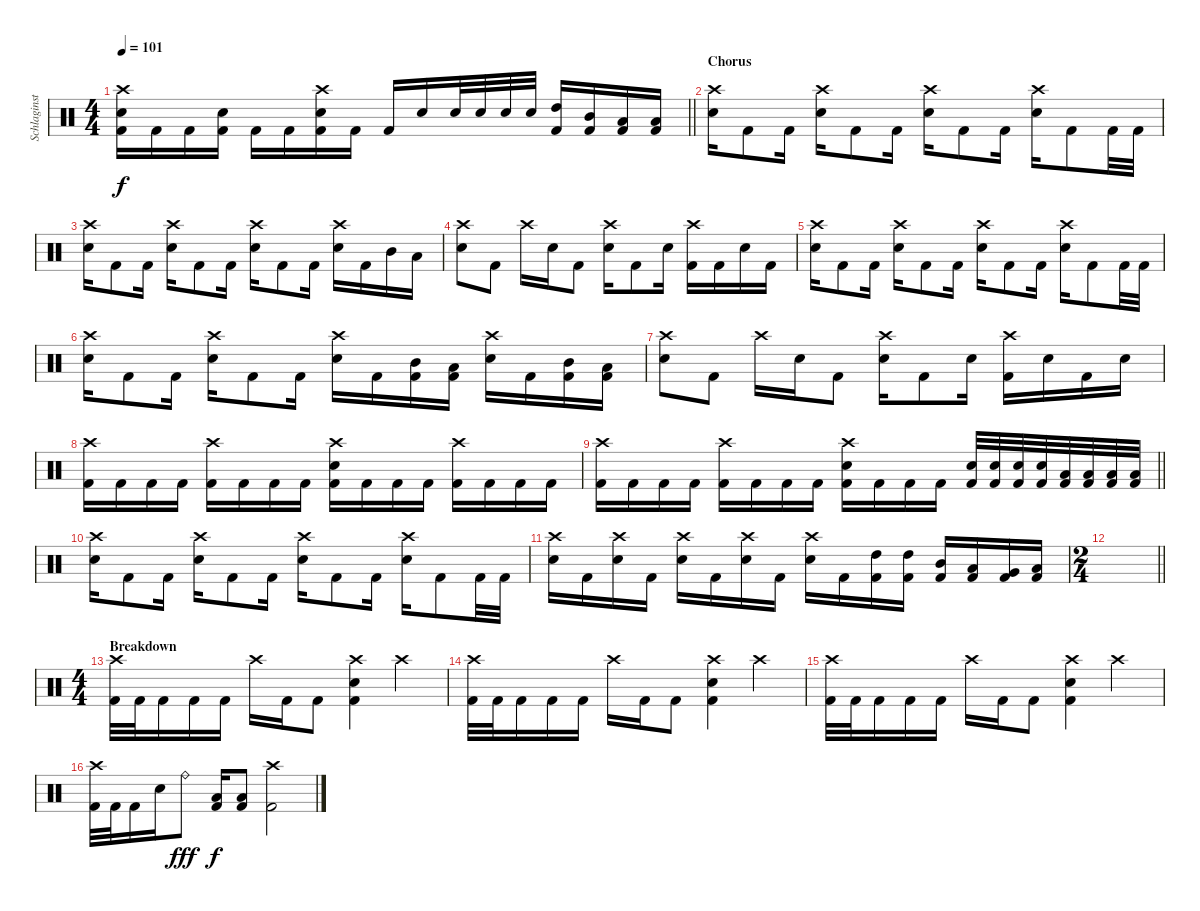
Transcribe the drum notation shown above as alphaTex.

\track ("Schlaginstrumente - Auswahl" "Schlaginst") {instrument percussion}
\staff {score}
\articulation defaults
\ts (4 4)
\tempo 101
\clef neutral
\barLineRight lightlight
\ks c
("Crash high (hit)" "Snare (hit) 2" "Kick (hit) 2").16{dy f} "Kick (hit) 2".16 "Kick (hit) 2".16 ("Snare (hit) 2" "Kick (hit) 2").16 "Kick (hit) 2".16 "Kick (hit) 2".16 ("Crash high (hit)" "Snare (hit) 2" "Kick (hit) 2").16 "Kick (hit) 2".16 "Kick (hit) 2".16 "Snare (hit) 2".16 "Snare (hit) 2".32 "Snare (hit) 2".32 "Snare (hit) 2".32 "Snare (hit) 2".32 ("High Tom (hit)" "Kick (hit) 2").16 ("Mid Tom (hit)" "Kick (hit) 2").16 ("Low Tom (hit)" "Kick (hit) 2").16 ("Low Floor Tom (hit)" "Kick (hit) 2").16 |
\section ("" "Chorus")
("Crash high (hit)" "Snare (hit) 2").16 "Kick (hit) 2".8 "Kick (hit) 2".16 ("Crash high (hit)" "Snare (hit) 2").16 "Kick (hit) 2".8 "Kick (hit) 2".16 ("Crash high (hit)" "Snare (hit) 2").16 "Kick (hit) 2".8 "Kick (hit) 2".16 ("Crash high (hit)" "Snare (hit) 2").16 "Kick (hit) 2".8 "Kick (hit) 2".32 "Kick (hit) 2".32 |
("Crash high (hit)" "Snare (hit) 2").16 "Kick (hit) 2".8 "Kick (hit) 2".16 ("Crash high (hit)" "Snare (hit) 2").16 "Kick (hit) 2".8 "Kick (hit) 2".16 ("Crash high (hit)" "Snare (hit) 2").16 "Kick (hit) 2".8 "Kick (hit) 2".16 ("Crash high (hit)" "Snare (hit) 2").16 "Kick (hit) 2".16 "Mid Tom (hit)".16 "Low Tom (hit)".16 |
("Crash high (hit)" "Snare (hit) 2").8 "Kick (hit) 2".8 "Crash high (hit)".16 "Snare (hit) 2".16 "Kick (hit) 2".8 ("Crash high (hit)" "Snare (hit) 2").16 "Kick (hit) 2".8 "Snare (hit) 2".16 ("Crash high (hit)" "Kick (hit) 2").16 "Kick (hit) 2".16 "Snare (hit) 2".16 "Kick (hit) 2".16 |
("Crash high (hit)" "Snare (hit) 2").16 "Kick (hit) 2".8 "Kick (hit) 2".16 ("Crash high (hit)" "Snare (hit) 2").16 "Kick (hit) 2".8 "Kick (hit) 2".16 ("Crash high (hit)" "Snare (hit) 2").16 "Kick (hit) 2".8 "Kick (hit) 2".16 ("Crash high (hit)" "Snare (hit) 2").16 "Kick (hit) 2".8 "Kick (hit) 2".32 "Kick (hit) 2".32 |
("Crash high (hit)" "Snare (hit) 2").16 "Kick (hit) 2".8 "Kick (hit) 2".16 ("Crash high (hit)" "Snare (hit) 2").16 "Kick (hit) 2".8 "Kick (hit) 2".16 ("Crash high (hit)" "Snare (hit) 2").16 "Kick (hit) 2".16 ("Mid Tom (hit)" "Kick (hit) 2").16 ("Low Tom (hit)" "Kick (hit) 2").16 ("Crash high (hit)" "Snare (hit) 2").16 "Kick (hit) 2".16 ("Mid Tom (hit)" "Kick (hit) 2").16 ("Low Tom (hit)" "Kick (hit) 2").16 |
("Crash high (hit)" "Snare (hit) 2").8 "Kick (hit) 2".8 "Crash high (hit)".16 "Snare (hit) 2".16 "Kick (hit) 2".8 ("Crash high (hit)" "Snare (hit) 2").16 "Kick (hit) 2".8 "Snare (hit) 2".16 ("Crash high (hit)" "Kick (hit) 2").16 "Snare (hit) 2".16 "Kick (hit) 2".16 "Snare (hit) 2".16 |
("Crash high (hit)" "Kick (hit) 2").16 "Kick (hit) 2".16 "Kick (hit) 2".16 "Kick (hit) 2".16 ("Crash high (hit)" "Kick (hit) 2").16 "Kick (hit) 2".16 "Kick (hit) 2".16 "Kick (hit) 2".16 ("Crash high (hit)" "Snare (hit) 2" "Kick (hit) 2").16 "Kick (hit) 2".16 "Kick (hit) 2".16 "Kick (hit) 2".16 ("Crash high (hit)" "Kick (hit) 2").16 "Kick (hit) 2".16 "Kick (hit) 2".16 "Kick (hit) 2".16 |
\barLineRight lightlight
("Crash high (hit)" "Kick (hit) 2").16 "Kick (hit) 2".16 "Kick (hit) 2".16 "Kick (hit) 2".16 ("Crash high (hit)" "Kick (hit) 2").16 "Kick (hit) 2".16 "Kick (hit) 2".16 "Kick (hit) 2".16 ("Crash high (hit)" "Snare (hit) 2" "Kick (hit) 2").16 "Kick (hit) 2".16 "Kick (hit) 2".16 "Kick (hit) 2".16 ("Snare (hit) 2" "Kick (hit) 2").32 ("Snare (hit) 2" "Kick (hit) 2").32 ("Snare (hit) 2" "Kick (hit) 2").32 ("Snare (hit) 2" "Kick (hit) 2").32 ("Low Tom (hit)" "Kick (hit) 2").32 ("Low Tom (hit)" "Kick (hit) 2").32 ("Low Tom (hit)" "Kick (hit) 2").32 ("Low Tom (hit)" "Kick (hit) 2").32 |
("Crash high (hit)" "Snare (hit) 2").16 "Kick (hit) 2".8 "Kick (hit) 2".16 ("Crash high (hit)" "Snare (hit) 2").16 "Kick (hit) 2".8 "Kick (hit) 2".16 ("Crash high (hit)" "Snare (hit) 2").16 "Kick (hit) 2".8 "Kick (hit) 2".16 ("Crash high (hit)" "Snare (hit) 2").16 "Kick (hit) 2".8 "Kick (hit) 2".32 "Kick (hit) 2".32 |
("Crash high (hit)" "Snare (hit) 2").16 "Kick (hit) 2".16 ("Crash high (hit)" "Snare (hit) 2").16 "Kick (hit) 2".16 ("Crash high (hit)" "Snare (hit) 2").16 "Kick (hit) 2".16 ("Crash high (hit)" "Snare (hit) 2").16 "Kick (hit) 2".16 ("Crash high (hit)" "Snare (hit) 2").16 "Kick (hit) 2".16 ("High Tom (hit)" "Kick (hit) 2").16 ("High Tom (hit)" "Kick (hit) 2").16 ("Mid Tom (hit)" "Kick (hit) 2").16 ("Low Tom (hit)" "Kick (hit) 2").16 ("Very Low Tom (hit)" "Kick (hit) 2").16 ("Low Floor Tom (hit)" "Kick (hit) 2").16 |
\ts (2 4)
\barLineRight lightlight
|
\ts (4 4)
\section ("" "Breakdown")
("Crash high (hit)" "Kick (hit) 2").32 "Kick (hit) 2".32 "Kick (hit) 2".16 "Kick (hit) 2".16 "Kick (hit) 2".16 "Crash high (hit)".16 "Kick (hit) 2".16 "Kick (hit) 2".8 ("Crash high (hit)" "Snare (hit) 2" "Kick (hit) 2").4 "Crash high (hit)".4 |
("Crash high (hit)" "Kick (hit) 2").32 "Kick (hit) 2".32 "Kick (hit) 2".16 "Kick (hit) 2".16 "Kick (hit) 2".16 "Crash high (hit)".16 "Kick (hit) 2".16 "Kick (hit) 2".8 ("Crash high (hit)" "Snare (hit) 2" "Kick (hit) 2").4 "Crash high (hit)".4 |
("Crash high (hit)" "Kick (hit) 2").32 "Kick (hit) 2".32 "Kick (hit) 2".16 "Kick (hit) 2".16 "Kick (hit) 2".16 "Crash high (hit)".16 "Kick (hit) 2".16 "Kick (hit) 2".8 ("Crash high (hit)" "Snare (hit) 2" "Kick (hit) 2").4 "Crash high (hit)".4 |
("Crash high (hit)" "Kick (hit) 2").32 "Kick (hit) 2".32 "Kick (hit) 2".16 "Snare (hit) 2".16 "Ride (bell)".8{dy fff} ("Low Tom (hit)" "Kick (hit) 2").16{dy f} ("Low Tom (hit)" "Kick (hit) 2").8 ("Crash high (hit)" "Kick (hit) 2").2
